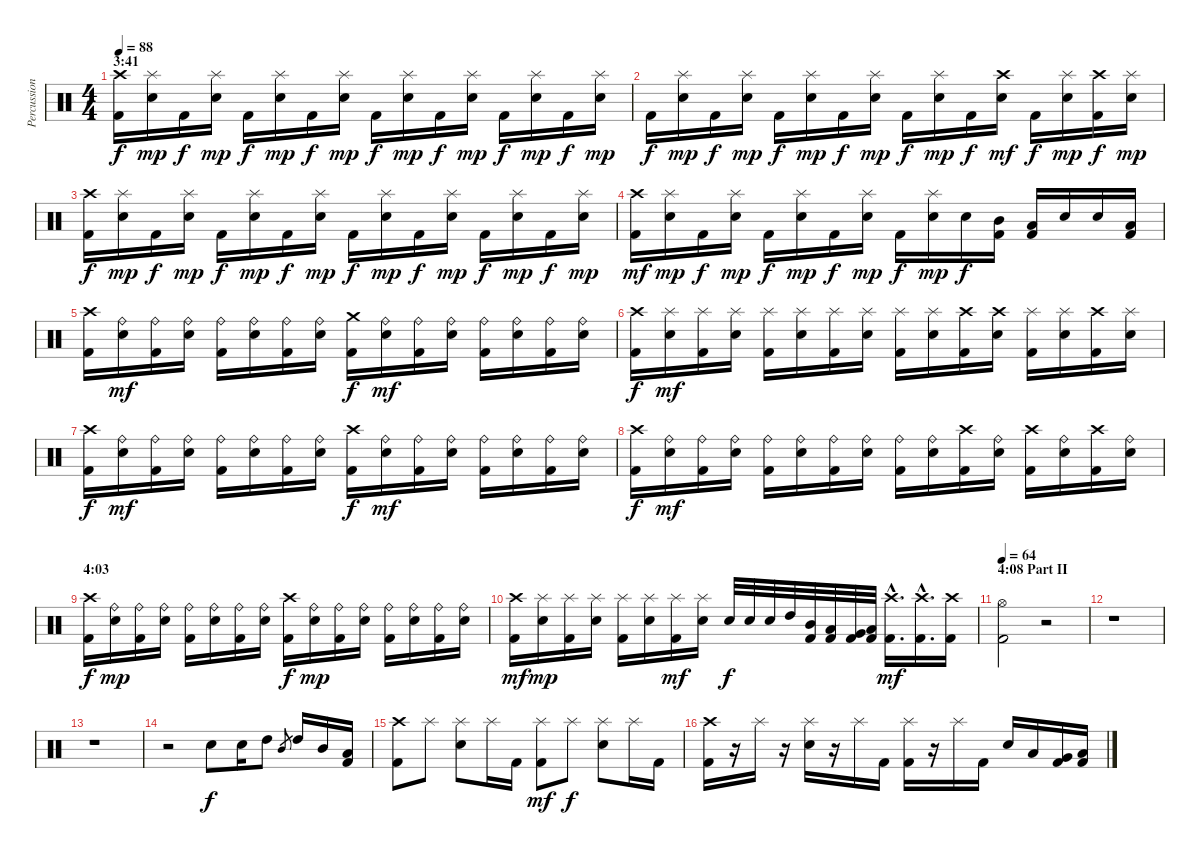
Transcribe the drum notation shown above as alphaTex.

\track ("Percussion" "Percussion") {instrument percussion}
\staff {score}
\articulation defaults
\ts (4 4)
\section ("" "3:41")
\tempo 88
\clef neutral
\ks c
("Crash high (hit)" "Kick (hit) 2").16{dy f} ("Splash (hit)" "Snare (hit) 2").16{dy mp} "Kick (hit) 2".16{dy f} ("Splash (hit)" "Snare (hit) 2").16{dy mp} "Kick (hit) 2".16{dy f} ("Splash (hit)" "Snare (hit) 2").16{dy mp} "Kick (hit) 2".16{dy f} ("Splash (hit)" "Snare (hit) 2").16{dy mp} "Kick (hit) 2".16{dy f} ("Splash (hit)" "Snare (hit) 2").16{dy mp} "Kick (hit) 2".16{dy f} ("Splash (hit)" "Snare (hit) 2").16{dy mp} "Kick (hit) 2".16{dy f} ("Splash (hit)" "Snare (hit) 2").16{dy mp} "Kick (hit) 2".16{dy f} ("Splash (hit)" "Snare (hit) 2").16{dy mp} |
"Kick (hit) 2".16{dy f} ("Splash (hit)" "Snare (hit) 2").16{dy mp} "Kick (hit) 2".16{dy f} ("Splash (hit)" "Snare (hit) 2").16{dy mp} "Kick (hit) 2".16{dy f} ("Splash (hit)" "Snare (hit) 2").16{dy mp} "Kick (hit) 2".16{dy f} ("Splash (hit)" "Snare (hit) 2").16{dy mp} "Kick (hit) 2".16{dy f} ("Splash (hit)" "Snare (hit) 2").16{dy mp} "Kick (hit) 2".16{dy f} ("Crash high (hit)" "Snare (hit) 2").16{dy mf} "Kick (hit) 2".16{dy f} ("Splash (hit)" "Snare (hit) 2").16{dy mp} ("Crash high (hit)" "Kick (hit) 2").16{dy f} ("Splash (hit)" "Snare (hit) 2").16{dy mp} |
("Crash high (hit)" "Kick (hit) 2").16{dy f} ("Splash (hit)" "Snare (hit) 2").16{dy mp} "Kick (hit) 2".16{dy f} ("Splash (hit)" "Snare (hit) 2").16{dy mp} "Kick (hit) 2".16{dy f} ("Splash (hit)" "Snare (hit) 2").16{dy mp} "Kick (hit) 2".16{dy f} ("Splash (hit)" "Snare (hit) 2").16{dy mp} "Kick (hit) 2".16{dy f} ("Splash (hit)" "Snare (hit) 2").16{dy mp} "Kick (hit) 2".16{dy f} ("Splash (hit)" "Snare (hit) 2").16{dy mp} "Kick (hit) 2".16{dy f} ("Splash (hit)" "Snare (hit) 2").16{dy mp} "Kick (hit) 2".16{dy f} ("Splash (hit)" "Snare (hit) 2").16{dy mp} |
("Crash high (hit)" "Kick (hit) 2").16{dy mf} ("Splash (hit)" "Snare (hit) 2").16{dy mp} "Kick (hit) 2".16{dy f} ("Splash (hit)" "Snare (hit) 2").16{dy mp} "Kick (hit) 2".16{dy f} ("Splash (hit)" "Snare (hit) 2").16{dy mp} "Kick (hit) 2".16{dy f} ("Splash (hit)" "Snare (hit) 2").16{dy mp} "Kick (hit) 2".16{dy f} ("Splash (hit)" "Snare (hit) 2").16{dy mp} "Snare (hit) 2".16{dy f} ("Mid Tom (hit)" "Kick (hit) 2").16 ("Low Tom (hit)" "Kick (hit) 2").16 "Snare (hit) 2".16 "Snare (hit) 2".16 ("Low Tom (hit)" "Kick (hit) 2").16 |
("Crash high (hit)" "Kick (hit) 2").16 ("Ride (bell)" "Snare (hit) 2").16{dy mf} ("Ride (bell)" "Kick (hit) 2").16 ("Ride (bell)" "Snare (hit) 2").16 ("Ride (bell)" "Kick (hit) 2").16 ("Ride (bell)" "Snare (hit) 2").16 ("Ride (bell)" "Kick (hit) 2").16 ("Ride (bell)" "Snare (hit) 2").16 ("Crash medium (hit)" "Kick (hit) 2").16{dy f} ("Ride (bell)" "Snare (hit) 2").16{dy mf} ("Ride (bell)" "Kick (hit) 2").16 ("Ride (bell)" "Snare (hit) 2").16 ("Ride (bell)" "Kick (hit) 2").16 ("Ride (bell)" "Snare (hit) 2").16 ("Ride (bell)" "Kick (hit) 2").16 ("Ride (bell)" "Snare (hit) 2").16 |
("Crash high (hit)" "Kick (hit) 2").16{dy f} ("Splash (hit)" "Snare (hit) 2").16{dy mf} ("Splash (hit)" "Kick (hit) 2").16 ("Splash (hit)" "Snare (hit) 2").16 ("Splash (hit)" "Kick (hit) 2").16 ("Splash (hit)" "Snare (hit) 2").16 ("Splash (hit)" "Kick (hit) 2").16 ("Splash (hit)" "Snare (hit) 2").16 ("Splash (hit)" "Kick (hit) 2").16 ("Splash (hit)" "Snare (hit) 2").16 ("Crash high (hit)" "Kick (hit) 2").16 ("Crash high (hit)" "Snare (hit) 2").16 ("Splash (hit)" "Kick (hit) 2").16 ("Splash (hit)" "Snare (hit) 2").16 ("Crash high (hit)" "Kick (hit) 2").16 ("Splash (hit)" "Snare (hit) 2").16 |
("Crash high (hit)" "Kick (hit) 2").16{dy f} ("Ride (bell)" "Snare (hit) 2").16{dy mf} ("Ride (bell)" "Kick (hit) 2").16 ("Ride (bell)" "Snare (hit) 2").16 ("Ride (bell)" "Kick (hit) 2").16 ("Ride (bell)" "Snare (hit) 2").16 ("Ride (bell)" "Kick (hit) 2").16 ("Ride (bell)" "Snare (hit) 2").16 ("Crash high (hit)" "Kick (hit) 2").16{dy f} ("Ride (bell)" "Snare (hit) 2").16{dy mf} ("Ride (bell)" "Kick (hit) 2").16 ("Ride (bell)" "Snare (hit) 2").16 ("Ride (bell)" "Kick (hit) 2").16 ("Ride (bell)" "Snare (hit) 2").16 ("Ride (bell)" "Kick (hit) 2").16 ("Ride (bell)" "Snare (hit) 2").16 |
("Crash high (hit)" "Kick (hit) 2").16{dy f} ("Ride (bell)" "Snare (hit) 2").16{dy mf} ("Ride (bell)" "Kick (hit) 2").16 ("Ride (bell)" "Snare (hit) 2").16 ("Ride (bell)" "Kick (hit) 2").16 ("Ride (bell)" "Snare (hit) 2").16 ("Ride (bell)" "Kick (hit) 2").16 ("Ride (bell)" "Snare (hit) 2").16 ("Ride (bell)" "Kick (hit) 2").16 ("Ride (bell)" "Snare (hit) 2").16 ("Crash high (hit)" "Kick (hit) 2").16 ("Ride (bell)" "Snare (hit) 2").16 ("Crash high (hit)" "Kick (hit) 2").16 ("Ride (bell)" "Snare (hit) 2").16 ("Crash high (hit)" "Kick (hit) 2").16 ("Ride (bell)" "Snare (hit) 2").16 |
\section ("" "4:03")
("Crash high (hit)" "Kick (hit) 2").16{dy f} ("Ride (bell)" "Snare (hit) 2").16{dy mp} ("Ride (bell)" "Kick (hit) 2").16 ("Ride (bell)" "Snare (hit) 2").16 ("Ride (bell)" "Kick (hit) 2").16 ("Ride (bell)" "Snare (hit) 2").16 ("Ride (bell)" "Kick (hit) 2").16 ("Ride (bell)" "Snare (hit) 2").16 ("Crash high (hit)" "Kick (hit) 2").16{dy f} ("Ride (bell)" "Snare (hit) 2").16{dy mp} ("Ride (bell)" "Kick (hit) 2").16 ("Ride (bell)" "Snare (hit) 2").16 ("Ride (bell)" "Kick (hit) 2").16 ("Ride (bell)" "Snare (hit) 2").16 ("Ride (bell)" "Kick (hit) 2").16 ("Ride (bell)" "Snare (hit) 2").16 |
("Crash high (hit)" "Kick (hit) 2").16{dy mf} ("Splash (hit)" "Snare (hit) 2").16{dy mp} ("Splash (hit)" "Kick (hit) 2").16 ("Splash (hit)" "Snare (hit) 2").16 ("Splash (hit)" "Kick (hit) 2").16 ("Splash (hit)" "Snare (hit) 2").16 ("Splash (hit)" "Kick (hit) 2").16{dy mf} ("Splash (hit)" "Snare (hit) 2").16 "Snare (hit) 2".32{dy f} "Snare (hit) 2".32 "Snare (hit) 2".32 "High Tom (hit)".32 ("Mid Tom (hit)" "Kick (hit) 2").32 ("Low Tom (hit)" "Kick (hit) 2").32 ("Very Low Tom (hit)" "Kick (hit) 2").32 ("Low Floor Tom (hit)" "Kick (hit) 2").32 ("Crash high (hit)"{hac} "Kick (hit) 2"{hac}).16{d dy mf} ("Crash high (hit)"{hac} "Kick (hit) 2"{hac}).16{d} ("Crash high (hit)" "Kick (hit) 2").16 |
\section ("" "4:08 Part II")
\tempo 64
("Hi-Hat (open)" "Kick (hit) 2").2 r.2 |
r.1 |
r.1 |
r.2 "Snare (hit) 2".8{dy f} "Snare (hit) 2".16 "High Tom (hit)".8 "Mid Tom (hit)".8{gr} "High Tom (hit)".16 "Mid Tom (hit)".16 ("Low Tom (hit)" "Kick (hit) 2").16 |
("Crash high (hit)" "Kick (hit) 2").8 "Splash (hit)".8 ("Splash (hit)" "Snare (hit) 2").8 "Splash (hit)".16 "Kick (hit) 2".16 ("Splash (hit)" "Kick (hit) 2").8{dy mf} "Splash (hit)".8{dy f} ("Splash (hit)" "Snare (hit) 2").8 "Splash (hit)".16 "Kick (hit) 2".16 |
("Crash high (hit)" "Kick (hit) 2").16 r.16 "Splash (hit)".16 r.16 ("Splash (hit)" "Snare (hit) 2").16 r.16 "Splash (hit)".16 "Kick (hit) 2".16 ("Splash (hit)" "Kick (hit) 2").16 r.16 "Splash (hit)".16 "Kick (hit) 2".16 "Snare (hit) 2".16 "Low Tom (hit)".16 ("Very Low Tom (hit)" "Kick (hit) 2").16 ("Low Floor Tom (hit)" "Kick (hit) 2").16
